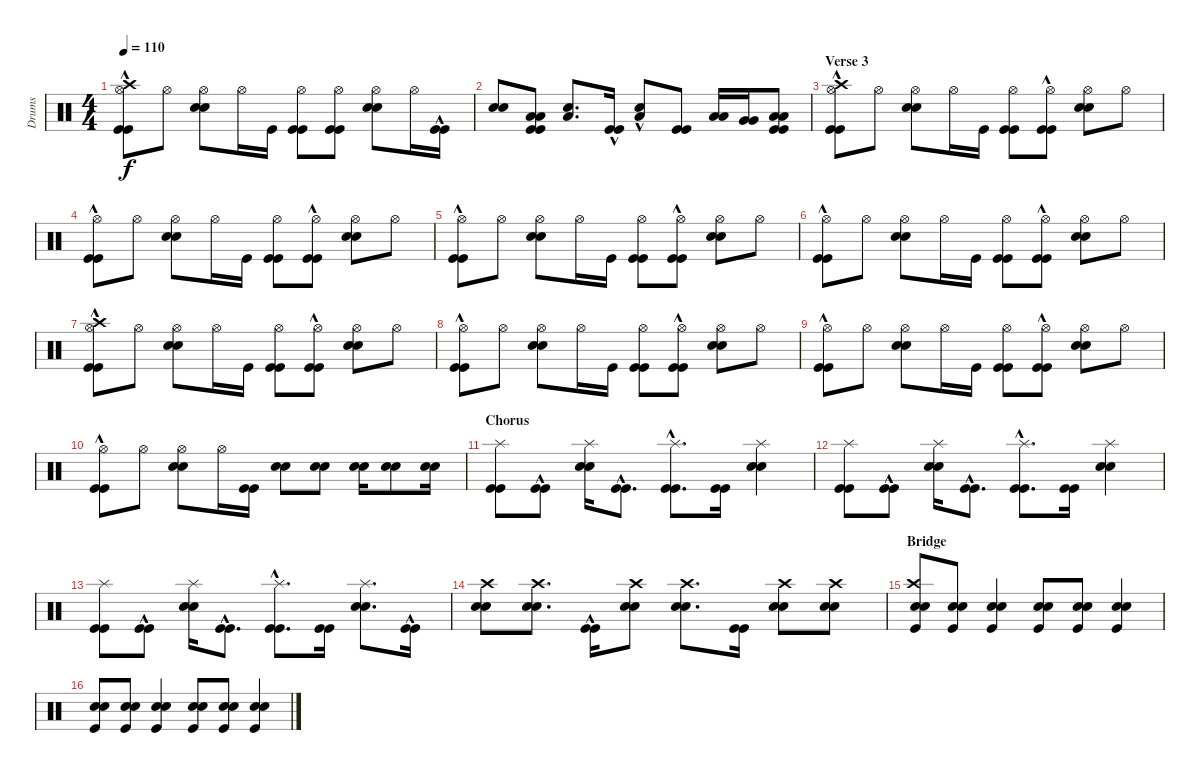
\track ("Drums" "Drums") {instrument percussion}
\staff {score}
\articulation defaults
\ts (4 4)
\tempo 110
\clef neutral
\ks c
("Kick (hit)"{hac} "Kick (hit)"{hac} "Hi-Hat (open)" "Crash high (hit)").8{dy f} "Hi-Hat (open)".8 ("Snare (hit) 2" "Snare (hit) 2" "Hi-Hat (open)").8 "Hi-Hat (open)".16 "Kick (hit)".16 ("Kick (hit)" "Kick (hit)" "Hi-Hat (open)").8 ("Kick (hit)" "Kick (hit)" "Hi-Hat (open)").8 ("Snare (hit) 2" "Snare (hit) 2" "Hi-Hat (open)").8 "Hi-Hat (open)".16 ("Kick (hit)"{hac} "Kick (hit)"{hac}).16 |
("Snare (hit) 2" "Snare (hit) 2").8 ("Kick (hit)" "Kick (hit)" "Low Tom (hit)" "Low Tom (hit)").8 ("Low Floor Tom (hit)" "Snare (hit) 2").8{d} ("Kick (hit)"{hac} "Kick (hit)"{hac}).16 ("Low Floor Tom (hit)"{hac} "Snare (hit) 2"{hac}).8 ("Kick (hit)" "Kick (hit)").8 ("Low Tom (hit)" "Low Tom (hit)").16 ("Very Low Tom (hit)" "Very Low Tom (hit)").16 ("Kick (hit)" "Kick (hit)" "Low Floor Tom (hit)" "Low Floor Tom (hit)").8 |
\section ("" "Verse 3")
("Kick (hit)"{hac} "Kick (hit)"{hac} "Hi-Hat (open)" "Crash high (hit)").8 "Hi-Hat (open)".8 ("Snare (hit) 2" "Snare (hit) 2" "Hi-Hat (open)").8 "Hi-Hat (open)".16 "Kick (hit)".16 ("Kick (hit)" "Kick (hit)" "Hi-Hat (open)").8 ("Kick (hit)"{hac} "Kick (hit)"{hac} "Hi-Hat (open)").8 ("Snare (hit) 2" "Snare (hit) 2" "Hi-Hat (open)").8 "Hi-Hat (open)".8 |
("Kick (hit)"{hac} "Kick (hit)"{hac} "Hi-Hat (open)").8 "Hi-Hat (open)".8 ("Snare (hit) 2" "Snare (hit) 2" "Hi-Hat (open)").8 "Hi-Hat (open)".16 "Kick (hit)".16 ("Kick (hit)" "Kick (hit)" "Hi-Hat (open)").8 ("Kick (hit)"{hac} "Kick (hit)"{hac} "Hi-Hat (open)").8 ("Snare (hit) 2" "Snare (hit) 2" "Hi-Hat (open)").8 "Hi-Hat (open)".8 |
("Kick (hit)"{hac} "Kick (hit)"{hac} "Hi-Hat (open)").8 "Hi-Hat (open)".8 ("Snare (hit) 2" "Snare (hit) 2" "Hi-Hat (open)").8 "Hi-Hat (open)".16 "Kick (hit)".16 ("Kick (hit)" "Kick (hit)" "Hi-Hat (open)").8 ("Kick (hit)"{hac} "Kick (hit)"{hac} "Hi-Hat (open)").8 ("Snare (hit) 2" "Snare (hit) 2" "Hi-Hat (open)").8 "Hi-Hat (open)".8 |
("Kick (hit)"{hac} "Kick (hit)"{hac} "Hi-Hat (open)").8 "Hi-Hat (open)".8 ("Snare (hit) 2" "Snare (hit) 2" "Hi-Hat (open)").8 "Hi-Hat (open)".16 "Kick (hit)".16 ("Kick (hit)" "Kick (hit)" "Hi-Hat (open)").8 ("Kick (hit)"{hac} "Kick (hit)"{hac} "Hi-Hat (open)").8 ("Snare (hit) 2" "Snare (hit) 2" "Hi-Hat (open)").8 "Hi-Hat (open)".8 |
("Kick (hit)"{hac} "Kick (hit)"{hac} "Hi-Hat (open)" "Crash high (hit)").8 "Hi-Hat (open)".8 ("Snare (hit) 2" "Snare (hit) 2" "Hi-Hat (open)").8 "Hi-Hat (open)".16 "Kick (hit)".16 ("Kick (hit)" "Kick (hit)" "Hi-Hat (open)").8 ("Kick (hit)"{hac} "Kick (hit)"{hac} "Hi-Hat (open)").8 ("Snare (hit) 2" "Snare (hit) 2" "Hi-Hat (open)").8 "Hi-Hat (open)".8 |
("Kick (hit)"{hac} "Kick (hit)"{hac} "Hi-Hat (open)").8 "Hi-Hat (open)".8 ("Snare (hit) 2" "Snare (hit) 2" "Hi-Hat (open)").8 "Hi-Hat (open)".16 "Kick (hit)".16 ("Kick (hit)" "Kick (hit)" "Hi-Hat (open)").8 ("Kick (hit)"{hac} "Kick (hit)"{hac} "Hi-Hat (open)").8 ("Snare (hit) 2" "Snare (hit) 2" "Hi-Hat (open)").8 "Hi-Hat (open)".8 |
("Kick (hit)"{hac} "Kick (hit)"{hac} "Hi-Hat (open)").8 "Hi-Hat (open)".8 ("Snare (hit) 2" "Snare (hit) 2" "Hi-Hat (open)").8 "Hi-Hat (open)".16 "Kick (hit)".16 ("Kick (hit)" "Kick (hit)" "Hi-Hat (open)").8 ("Kick (hit)"{hac} "Kick (hit)"{hac} "Hi-Hat (open)").8 ("Snare (hit) 2" "Snare (hit) 2" "Hi-Hat (open)").8 "Hi-Hat (open)".8 |
("Kick (hit)"{hac} "Kick (hit)"{hac} "Hi-Hat (open)").8 "Hi-Hat (open)".8 ("Snare (hit) 2" "Snare (hit) 2" "Hi-Hat (open)").8 "Hi-Hat (open)".16 ("Kick (hit)" "Kick (hit)").16 ("Snare (hit) 2" "Snare (hit) 2").8 ("Snare (hit) 2" "Snare (hit) 2").8 ("Snare (hit) 2" "Snare (hit) 2").16 ("Snare (hit) 2" "Snare (hit) 2").8 ("Snare (hit) 2" "Snare (hit) 2").16 |
\section ("" "Chorus")
("Kick (hit)" "Kick (hit)" "Splash (hit)").8 ("Kick (hit)"{hac} "Kick (hit)"{hac}).8 ("Snare (hit) 2" "Snare (hit) 2" "Splash (hit)").16 ("Kick (hit)"{hac} "Kick (hit)"{hac}).8{d} ("Kick (hit)"{hac} "Kick (hit)"{hac} "Splash (hit)").8{d} ("Kick (hit)" "Kick (hit)").16 ("Snare (hit) 2" "Snare (hit) 2" "Splash (hit)").4 |
("Kick (hit)" "Kick (hit)" "Splash (hit)").8 ("Kick (hit)"{hac} "Kick (hit)"{hac}).8 ("Snare (hit) 2" "Snare (hit) 2" "Splash (hit)").16 ("Kick (hit)"{hac} "Kick (hit)"{hac}).8{d} ("Kick (hit)"{hac} "Kick (hit)"{hac} "Splash (hit)").8{d} ("Kick (hit)" "Kick (hit)").16 ("Snare (hit) 2" "Snare (hit) 2" "Splash (hit)").4 |
("Kick (hit)" "Kick (hit)" "Splash (hit)").8 ("Kick (hit)"{hac} "Kick (hit)"{hac}).8 ("Snare (hit) 2" "Snare (hit) 2" "Splash (hit)").16 ("Kick (hit)"{hac} "Kick (hit)"{hac}).8{d} ("Kick (hit)"{hac} "Kick (hit)"{hac} "Splash (hit)").8{d} ("Kick (hit)" "Kick (hit)").16 ("Snare (hit) 2" "Snare (hit) 2" "Splash (hit)").8{d} ("Kick (hit)"{hac} "Kick (hit)"{hac}).16 |
("Snare (hit) 2" "Snare (hit) 2" "Crash high (hit)").8 ("Snare (hit) 2" "Snare (hit) 2" "Crash high (hit)").8{d} ("Kick (hit)"{hac} "Kick (hit)"{hac}).16 ("Snare (hit) 2" "Snare (hit) 2" "Crash high (hit)").8 ("Snare (hit) 2" "Snare (hit) 2" "Crash high (hit)").8{d} ("Kick (hit)" "Kick (hit)").16 ("Snare (hit) 2" "Snare (hit) 2" "Crash high (hit)").8 ("Snare (hit) 2" "Snare (hit) 2" "Crash high (hit)").8 |
\section ("" "Bridge")
("Kick (hit)" "Snare (hit) 2" "Snare (hit) 2" "Crash high (hit)").8 ("Kick (hit)" "Snare (hit) 2" "Snare (hit) 2").8 ("Kick (hit)" "Snare (hit) 2" "Snare (hit) 2").4 ("Kick (hit)" "Snare (hit) 2" "Snare (hit) 2").8 ("Kick (hit)" "Snare (hit) 2" "Snare (hit) 2").8 ("Kick (hit)" "Snare (hit) 2" "Snare (hit) 2").4 |
("Kick (hit)" "Snare (hit) 2" "Snare (hit) 2").8 ("Kick (hit)" "Snare (hit) 2" "Snare (hit) 2").8 ("Kick (hit)" "Snare (hit) 2" "Snare (hit) 2").4 ("Kick (hit)" "Snare (hit) 2" "Snare (hit) 2").8 ("Kick (hit)" "Snare (hit) 2" "Snare (hit) 2").8 ("Kick (hit)" "Snare (hit) 2" "Snare (hit) 2").4
